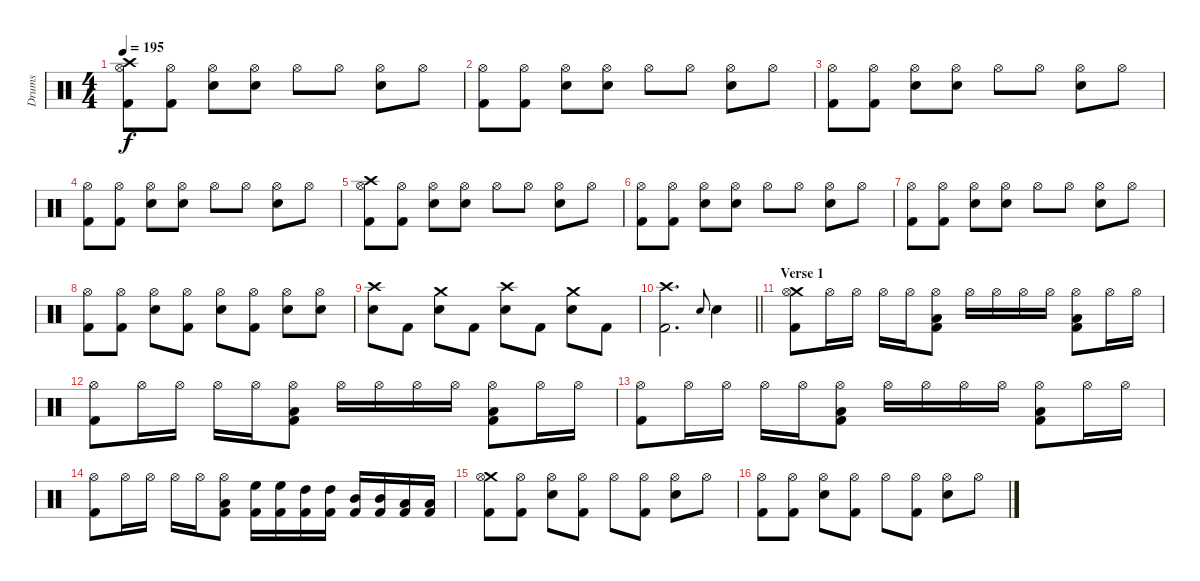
\track ("Drums" "Drums") {instrument percussion}
\staff {score}
\articulation defaults
\ts (4 4)
\tempo 195
\clef neutral
\ks c
("Crash high (hit)" "Hi-Hat (open)" "Kick (hit) 2").8{dy f} ("Hi-Hat (open)" "Kick (hit) 2").8 ("Hi-Hat (open)" "Snare (hit) 2").8 ("Hi-Hat (open)" "Snare (hit) 2").8 "Hi-Hat (open)".8 "Hi-Hat (open)".8 ("Hi-Hat (open)" "Snare (hit) 2").8 "Hi-Hat (open)".8 |
("Hi-Hat (open)" "Kick (hit) 2").8 ("Hi-Hat (open)" "Kick (hit) 2").8 ("Hi-Hat (open)" "Snare (hit) 2").8 ("Hi-Hat (open)" "Snare (hit) 2").8 "Hi-Hat (open)".8 "Hi-Hat (open)".8 ("Hi-Hat (open)" "Snare (hit) 2").8 "Hi-Hat (open)".8 |
("Hi-Hat (open)" "Kick (hit) 2").8 ("Hi-Hat (open)" "Kick (hit) 2").8 ("Hi-Hat (open)" "Snare (hit) 2").8 ("Hi-Hat (open)" "Snare (hit) 2").8 "Hi-Hat (open)".8 "Hi-Hat (open)".8 ("Hi-Hat (open)" "Snare (hit) 2").8 "Hi-Hat (open)".8 |
("Hi-Hat (open)" "Kick (hit) 2").8 ("Hi-Hat (open)" "Kick (hit) 2").8 ("Hi-Hat (open)" "Snare (hit) 2").8 ("Hi-Hat (open)" "Snare (hit) 2").8 "Hi-Hat (open)".8 "Hi-Hat (open)".8 ("Hi-Hat (open)" "Snare (hit) 2").8 "Hi-Hat (open)".8 |
("Crash high (hit)" "Hi-Hat (open)" "Kick (hit) 2").8 ("Hi-Hat (open)" "Kick (hit) 2").8 ("Hi-Hat (open)" "Snare (hit) 2").8 ("Hi-Hat (open)" "Snare (hit) 2").8 "Hi-Hat (open)".8 "Hi-Hat (open)".8 ("Hi-Hat (open)" "Snare (hit) 2").8 "Hi-Hat (open)".8 |
("Hi-Hat (open)" "Kick (hit) 2").8 ("Hi-Hat (open)" "Kick (hit) 2").8 ("Hi-Hat (open)" "Snare (hit) 2").8 ("Hi-Hat (open)" "Snare (hit) 2").8 "Hi-Hat (open)".8 "Hi-Hat (open)".8 ("Hi-Hat (open)" "Snare (hit) 2").8 "Hi-Hat (open)".8 |
("Hi-Hat (open)" "Kick (hit) 2").8 ("Hi-Hat (open)" "Kick (hit) 2").8 ("Hi-Hat (open)" "Snare (hit) 2").8 ("Hi-Hat (open)" "Snare (hit) 2").8 "Hi-Hat (open)".8 "Hi-Hat (open)".8 ("Hi-Hat (open)" "Snare (hit) 2").8 "Hi-Hat (open)".8 |
("Hi-Hat (open)" "Kick (hit) 2").8 ("Hi-Hat (open)" "Kick (hit) 2").8 ("Hi-Hat (open)" "Snare (hit) 2").8 ("Hi-Hat (open)" "Kick (hit) 2").8 ("Hi-Hat (open)" "Snare (hit) 2").8 ("Hi-Hat (open)" "Kick (hit) 2").8 ("Hi-Hat (open)" "Snare (hit) 2").8 ("Hi-Hat (open)" "Snare (hit) 2").8 |
("Crash high (hit)" "Snare (hit) 2").8 "Kick (hit) 2".8 ("Crash medium (hit)" "Snare (hit) 2").8 "Kick (hit) 2".8 ("Crash high (hit)" "Snare (hit) 2").8 "Kick (hit) 2".8 ("Crash medium (hit)" "Snare (hit) 2").8 "Kick (hit) 2".8 |
\barLineRight lightlight
("Crash high (hit)" "Kick (hit) 2").2{d} "Snare (hit) 2".8{gr onbeat} "Snare (hit) 2".4 |
\section ("" "Verse 1")
("Crash medium (hit)" "Hi-Hat (open)" "Kick (hit) 2").8 "Hi-Hat (open)".16 "Hi-Hat (open)".16 "Hi-Hat (open)".16 "Hi-Hat (open)".16 ("Hi-Hat (open)" "Low Floor Tom (hit)" "Kick (hit) 2").8 "Hi-Hat (open)".16 "Hi-Hat (open)".16 "Hi-Hat (open)".16 "Hi-Hat (open)".16 ("Hi-Hat (open)" "Low Floor Tom (hit)" "Kick (hit) 2").8 "Hi-Hat (open)".16 "Hi-Hat (open)".16 |
("Hi-Hat (open)" "Kick (hit) 2").8 "Hi-Hat (open)".16 "Hi-Hat (open)".16 "Hi-Hat (open)".16 "Hi-Hat (open)".16 ("Hi-Hat (open)" "Low Floor Tom (hit)" "Kick (hit) 2").8 "Hi-Hat (open)".16 "Hi-Hat (open)".16 "Hi-Hat (open)".16 "Hi-Hat (open)".16 ("Hi-Hat (open)" "Low Floor Tom (hit)" "Kick (hit) 2").8 "Hi-Hat (open)".16 "Hi-Hat (open)".16 |
("Hi-Hat (open)" "Kick (hit) 2").8 "Hi-Hat (open)".16 "Hi-Hat (open)".16 "Hi-Hat (open)".16 "Hi-Hat (open)".16 ("Hi-Hat (open)" "Low Floor Tom (hit)" "Kick (hit) 2").8 "Hi-Hat (open)".16 "Hi-Hat (open)".16 "Hi-Hat (open)".16 "Hi-Hat (open)".16 ("Hi-Hat (open)" "Low Floor Tom (hit)" "Kick (hit) 2").8 "Hi-Hat (open)".16 "Hi-Hat (open)".16 |
("Hi-Hat (open)" "Kick (hit) 2").8 "Hi-Hat (open)".16 "Hi-Hat (open)".16 "Hi-Hat (open)".16 "Hi-Hat (open)".16 ("Hi-Hat (open)" "Low Floor Tom (hit)" "Kick (hit) 2").8 ("High Floor Tom (hit)" "Kick (hit) 2").16 ("High Floor Tom (hit)" "Kick (hit) 2").16 ("High Tom (hit)" "Kick (hit) 2").16 ("High Tom (hit)" "Kick (hit) 2").16 ("Mid Tom (hit)" "Kick (hit) 2").16 ("Mid Tom (hit)" "Kick (hit) 2").16 ("Low Tom (hit)" "Kick (hit) 2").16 ("Low Tom (hit)" "Kick (hit) 2").16 |
("Crash medium (hit)" "Hi-Hat (open)" "Kick (hit) 2").8 ("Hi-Hat (open)" "Kick (hit) 2").8 ("Hi-Hat (open)" "Snare (hit) 2").8 ("Hi-Hat (open)" "Kick (hit) 2").8 "Hi-Hat (open)".8 ("Hi-Hat (open)" "Kick (hit) 2").8 ("Hi-Hat (open)" "Snare (hit) 2").8 "Hi-Hat (open)".8 |
("Hi-Hat (open)" "Kick (hit) 2").8 ("Hi-Hat (open)" "Kick (hit) 2").8 ("Hi-Hat (open)" "Snare (hit) 2").8 ("Hi-Hat (open)" "Kick (hit) 2").8 "Hi-Hat (open)".8 ("Hi-Hat (open)" "Kick (hit) 2").8 ("Hi-Hat (open)" "Snare (hit) 2").8 "Hi-Hat (open)".8
